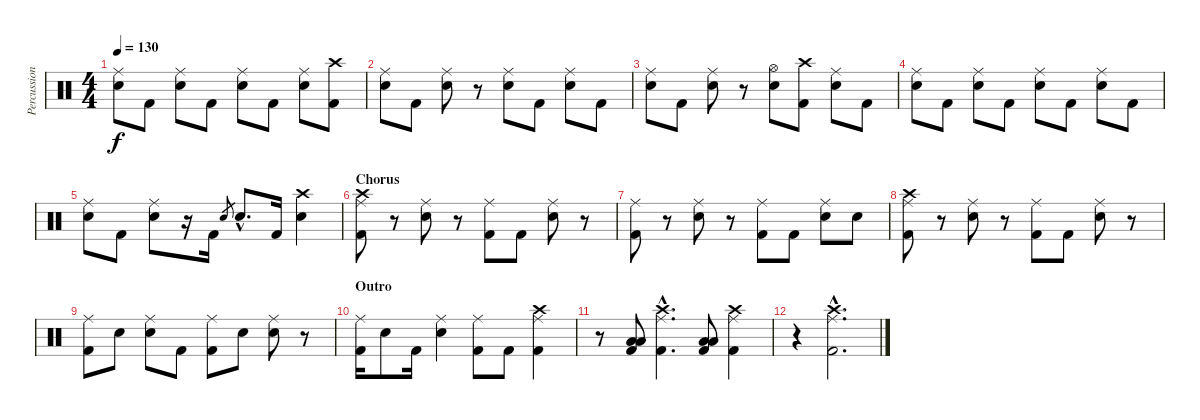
\track ("Percussion" "Percussion") {instrument percussion}
\staff {score}
\articulation defaults
\ts (4 4)
\tempo 130
\clef neutral
\ks c
("Ride (middle)" "Electric Snare (hit)").8{dy f} "Kick (hit) 2".8 ("Ride (middle)" "Electric Snare (hit)").8 "Kick (hit) 2".8 ("Ride (middle)" "Electric Snare (hit)").8 "Kick (hit) 2".8 ("Ride (middle)" "Electric Snare (hit)").8 ("Crash high (hit)" "Kick (hit) 2").8 |
("Ride (middle)" "Electric Snare (hit)").8 "Kick (hit) 2".8 ("Ride (middle)" "Electric Snare (hit)").8 r.8 ("Ride (middle)" "Electric Snare (hit)").8 "Kick (hit) 2".8 ("Ride (middle)" "Electric Snare (hit)").8 "Kick (hit) 2".8 |
("Ride (middle)" "Electric Snare (hit)").8 "Kick (hit) 2".8 ("Ride (middle)" "Electric Snare (hit)").8 r.8 ("Hi-Hat (open)" "Electric Snare (hit)").8 ("Crash high (hit)" "Kick (hit) 2").8 ("Ride (middle)" "Electric Snare (hit)").8 "Kick (hit) 2".8 |
("Ride (middle)" "Electric Snare (hit)").8 "Kick (hit) 2".8 ("Ride (middle)" "Electric Snare (hit)").8 "Kick (hit) 2".8 ("Ride (middle)" "Electric Snare (hit)").8 "Kick (hit) 2".8 ("Ride (middle)" "Electric Snare (hit)").8 "Kick (hit) 2".8 |
("Ride (middle)" "Electric Snare (hit)").8 "Kick (hit) 2".8 ("Ride (middle)" "Electric Snare (hit)").8 r.16 "Kick (hit) 2".16 "Electric Snare (hit)".8{gr} "Electric Snare (hit)"{hac}.8{d} "Kick (hit) 2".16 ("Crash high (hit)" "Electric Snare (hit)").4 |
\section ("" "Chorus")
("Ride (middle)" "Crash high (hit)" "Kick (hit) 2").8 r.8 ("Ride (middle)" "Electric Snare (hit)").8 r.8 ("Ride (middle)" "Kick (hit) 2").8 "Kick (hit) 2".8 ("Ride (middle)" "Electric Snare (hit)").8 r.8 |
("Ride (middle)" "Kick (hit) 2").8 r.8 ("Ride (middle)" "Electric Snare (hit)").8 r.8 ("Ride (middle)" "Kick (hit) 2").8 "Kick (hit) 2".8 ("Ride (middle)" "Electric Snare (hit)").8 "Electric Snare (hit)".8 |
("Ride (middle)" "Crash high (hit)" "Kick (hit) 2").8 r.8 ("Ride (middle)" "Electric Snare (hit)").8 r.8 ("Ride (middle)" "Kick (hit) 2").8 "Kick (hit) 2".8 ("Ride (middle)" "Electric Snare (hit)").8 r.8 |
("Ride (middle)" "Kick (hit) 2").8 "Electric Snare (hit)".8 ("Ride (middle)" "Electric Snare (hit)").8 "Kick (hit) 2".8 ("Ride (middle)" "Kick (hit) 2").8 "Electric Snare (hit)".8 ("Ride (middle)" "Electric Snare (hit)").8 r.8 |
\section ("" "Outro")
("Ride (middle)" "Kick (hit) 2").16 "Electric Snare (hit)".8 "Kick (hit) 2".16 ("Ride (middle)" "Electric Snare (hit)").4 ("Ride (middle)" "Kick (hit) 2").8 "Kick (hit) 2".8 ("Crash high (hit)" "Ride (middle)" "Kick (hit) 2").4 |
r.8 ("Low Floor Tom (hit)" "Low Tom (hit)" "Kick (hit) 2").8 ("Crash high (hit)"{hac} "Ride (middle)"{hac} "Kick (hit) 2"{hac}).4{d} ("Low Floor Tom (hit)" "Low Tom (hit)" "Kick (hit) 2").8 ("Crash high (hit)" "Ride (middle)" "Kick (hit) 2").4 |
r.4 ("Crash high (hit)"{hac} "Ride (middle)"{hac} "Kick (hit) 2"{hac}).2{d}
